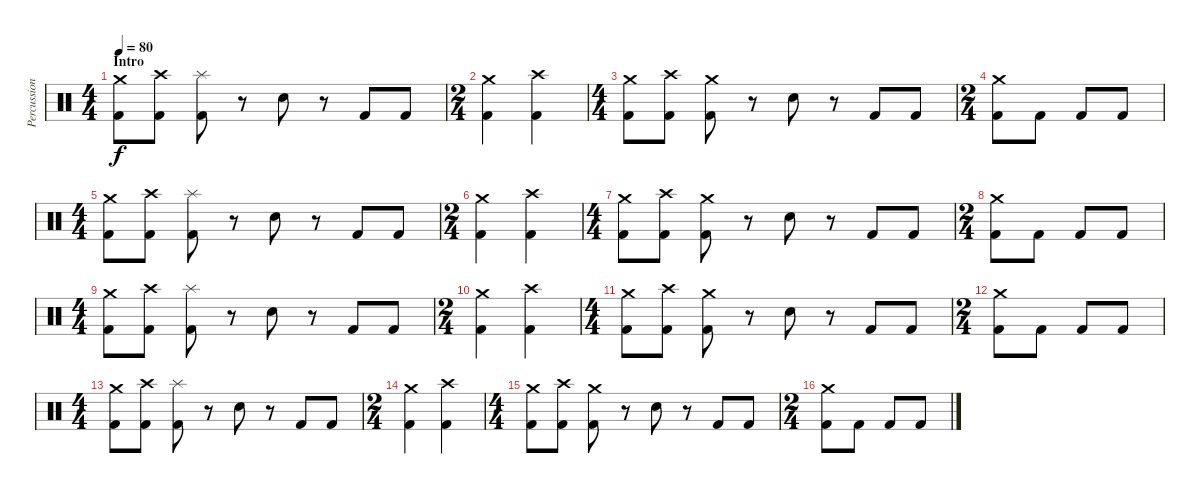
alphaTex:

\track ("Percussions" "Percussion") {instrument percussion}
\staff {score}
\articulation defaults
\ts (4 4)
\section ("" "Intro")
\tempo 80
\clef neutral
\ks c
("Crash medium (hit)" "Kick (hit) 2").8{dy f} ("Crash high (hit)" "Kick (hit) 2").8 ("Splash (hit)" "Kick (hit) 2").8 r.8 "Electric Snare (hit)".8 r.8 "Kick (hit) 2".8 "Kick (hit) 2".8 |
\ts (2 4)
("Crash medium (hit)" "Kick (hit) 2").4 ("Crash high (hit)" "Kick (hit) 2").4 |
\ts (4 4)
("Crash medium (hit)" "Kick (hit) 2").8 ("Crash high (hit)" "Kick (hit) 2").8 ("Crash medium (hit)" "Kick (hit) 2").8 r.8 "Electric Snare (hit)".8 r.8 "Kick (hit) 2".8 "Kick (hit) 2".8 |
\ts (2 4)
("Crash medium (hit)" "Kick (hit) 2").8 "Kick (hit) 2".8 "Kick (hit) 2".8 "Kick (hit) 2".8 |
\ts (4 4)
("Crash medium (hit)" "Kick (hit) 2").8 ("Crash high (hit)" "Kick (hit) 2").8 ("Splash (hit)" "Kick (hit) 2").8 r.8 "Electric Snare (hit)".8 r.8 "Kick (hit) 2".8 "Kick (hit) 2".8 |
\ts (2 4)
("Crash medium (hit)" "Kick (hit) 2").4 ("Crash high (hit)" "Kick (hit) 2").4 |
\ts (4 4)
("Crash medium (hit)" "Kick (hit) 2").8 ("Crash high (hit)" "Kick (hit) 2").8 ("Crash medium (hit)" "Kick (hit) 2").8 r.8 "Electric Snare (hit)".8 r.8 "Kick (hit) 2".8 "Kick (hit) 2".8 |
\ts (2 4)
("Crash medium (hit)" "Kick (hit) 2").8 "Kick (hit) 2".8 "Kick (hit) 2".8 "Kick (hit) 2".8 |
\ts (4 4)
("Crash medium (hit)" "Kick (hit) 2").8 ("Crash high (hit)" "Kick (hit) 2").8 ("Splash (hit)" "Kick (hit) 2").8 r.8 "Electric Snare (hit)".8 r.8 "Kick (hit) 2".8 "Kick (hit) 2".8 |
\ts (2 4)
("Crash medium (hit)" "Kick (hit) 2").4 ("Crash high (hit)" "Kick (hit) 2").4 |
\ts (4 4)
("Crash medium (hit)" "Kick (hit) 2").8 ("Crash high (hit)" "Kick (hit) 2").8 ("Crash medium (hit)" "Kick (hit) 2").8 r.8 "Electric Snare (hit)".8 r.8 "Kick (hit) 2".8 "Kick (hit) 2".8 |
\ts (2 4)
("Crash medium (hit)" "Kick (hit) 2").8 "Kick (hit) 2".8 "Kick (hit) 2".8 "Kick (hit) 2".8 |
\ts (4 4)
("Crash medium (hit)" "Kick (hit) 2").8 ("Crash high (hit)" "Kick (hit) 2").8 ("Splash (hit)" "Kick (hit) 2").8 r.8 "Electric Snare (hit)".8 r.8 "Kick (hit) 2".8 "Kick (hit) 2".8 |
\ts (2 4)
("Crash medium (hit)" "Kick (hit) 2").4 ("Crash high (hit)" "Kick (hit) 2").4 |
\ts (4 4)
("Crash medium (hit)" "Kick (hit) 2").8 ("Crash high (hit)" "Kick (hit) 2").8 ("Crash medium (hit)" "Kick (hit) 2").8 r.8 "Electric Snare (hit)".8 r.8 "Kick (hit) 2".8 "Kick (hit) 2".8 |
\ts (2 4)
("Crash medium (hit)" "Kick (hit) 2").8 "Kick (hit) 2".8 "Kick (hit) 2".8 "Kick (hit) 2".8
